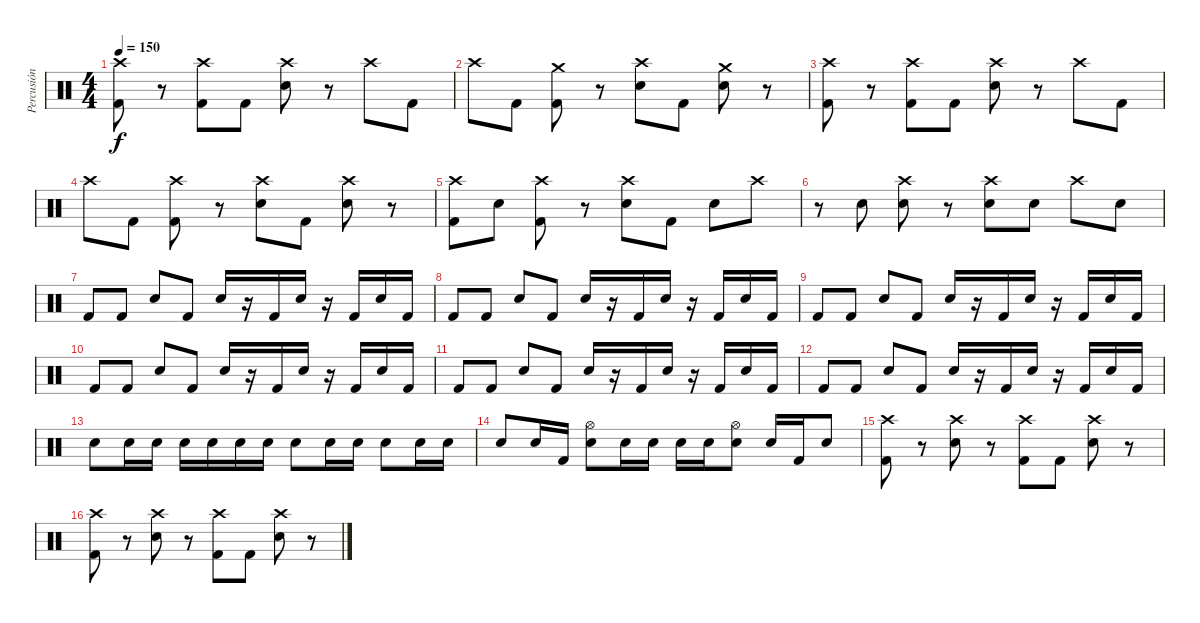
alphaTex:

\track ("Percusión" "Percusión") {instrument percussion}
\staff {score}
\articulation defaults
\ts (4 4)
\tempo 150
\clef neutral
\ks c
("Crash high (hit)" "Kick (hit) 2").8{dy f} r.8 ("Crash high (hit)" "Kick (hit) 2").8 "Kick (hit) 2".8 ("Crash high (hit)" "Snare (hit) 2").8 r.8 "Crash high (hit)".8 "Kick (hit) 2".8 |
"Crash high (hit)".8 "Kick (hit) 2".8 ("Crash medium (hit)" "Kick (hit) 2").8 r.8 ("Crash high (hit)" "Snare (hit) 2").8 "Kick (hit) 2".8 ("Crash medium (hit)" "Snare (hit) 2").8 r.8 |
("Crash high (hit)" "Kick (hit) 2").8 r.8 ("Crash high (hit)" "Kick (hit) 2").8 "Kick (hit) 2".8 ("Crash high (hit)" "Snare (hit) 2").8 r.8 "Crash high (hit)".8 "Kick (hit) 2".8 |
"Crash high (hit)".8 "Kick (hit) 2".8 ("Crash high (hit)" "Kick (hit) 2").8 r.8 ("Crash high (hit)" "Snare (hit) 2").8 "Kick (hit) 2".8 ("Crash high (hit)" "Snare (hit) 2").8 r.8 |
("Crash high (hit)" "Kick (hit) 2").8 "Snare (hit) 2".8 ("Crash high (hit)" "Kick (hit) 2").8 r.8 ("Crash high (hit)" "Snare (hit) 2").8 "Kick (hit) 2".8 "Snare (hit) 2".8 "Crash high (hit)".8 |
r.8 "Snare (hit) 2".8 ("Crash high (hit)" "Snare (hit) 2").8 r.8 ("Crash high (hit)" "Snare (hit) 2").8 "Snare (hit) 2".8 "Crash high (hit)".8 "Snare (hit) 2".8 |
"Kick (hit) 2".8{volume 10} "Kick (hit) 2".8 "Snare (hit) 2".8 "Kick (hit) 2".8 "Snare (hit) 2".16 r.16 "Kick (hit) 2".16 "Snare (hit) 2".16 r.16 "Kick (hit) 2".16 "Snare (hit) 2".16 "Kick (hit) 2".16 |
"Kick (hit) 2".8 "Kick (hit) 2".8 "Snare (hit) 2".8 "Kick (hit) 2".8 "Snare (hit) 2".16 r.16 "Kick (hit) 2".16 "Snare (hit) 2".16 r.16 "Kick (hit) 2".16 "Snare (hit) 2".16 "Kick (hit) 2".16 |
"Kick (hit) 2".8 "Kick (hit) 2".8 "Snare (hit) 2".8 "Kick (hit) 2".8 "Snare (hit) 2".16 r.16 "Kick (hit) 2".16 "Snare (hit) 2".16 r.16 "Kick (hit) 2".16 "Snare (hit) 2".16 "Kick (hit) 2".16 |
"Kick (hit) 2".8 "Kick (hit) 2".8 "Snare (hit) 2".8 "Kick (hit) 2".8 "Snare (hit) 2".16 r.16 "Kick (hit) 2".16 "Snare (hit) 2".16 r.16 "Kick (hit) 2".16 "Snare (hit) 2".16 "Kick (hit) 2".16 |
"Kick (hit) 2".8 "Kick (hit) 2".8 "Snare (hit) 2".8 "Kick (hit) 2".8 "Snare (hit) 2".16 r.16 "Kick (hit) 2".16 "Snare (hit) 2".16 r.16 "Kick (hit) 2".16 "Snare (hit) 2".16 "Kick (hit) 2".16 |
"Kick (hit) 2".8 "Kick (hit) 2".8 "Snare (hit) 2".8 "Kick (hit) 2".8 "Snare (hit) 2".16 r.16 "Kick (hit) 2".16 "Snare (hit) 2".16 r.16 "Kick (hit) 2".16 "Snare (hit) 2".16 "Kick (hit) 2".16 |
"Snare (hit) 2".8{volume 16} "Snare (hit) 2".16 "Snare (hit) 2".16 "Snare (hit) 2".16 "Snare (hit) 2".16 "Snare (hit) 2".16 "Snare (hit) 2".16 "Snare (hit) 2".8 "Snare (hit) 2".16 "Snare (hit) 2".16 "Snare (hit) 2".8 "Snare (hit) 2".16 "Snare (hit) 2".16 |
"Snare (hit) 2".8 "Snare (hit) 2".16 "Kick (hit) 2".16 ("Hi-Hat (open)" "Snare (hit) 2").8 "Snare (hit) 2".16 "Snare (hit) 2".16 "Snare (hit) 2".16 "Snare (hit) 2".16 ("Hi-Hat (open)" "Snare (hit) 2").8 "Snare (hit) 2".16 "Kick (hit) 2".16 "Snare (hit) 2".8 |
("Crash high (hit)" "Kick (hit) 2").8 r.8 ("Crash high (hit)" "Snare (hit) 2").8 r.8 ("Crash high (hit)" "Kick (hit) 2").8 "Kick (hit) 2".8 ("Crash high (hit)" "Snare (hit) 2").8 r.8 |
("Crash high (hit)" "Kick (hit) 2").8 r.8 ("Crash high (hit)" "Snare (hit) 2").8 r.8 ("Crash high (hit)" "Kick (hit) 2").8 "Kick (hit) 2".8 ("Crash high (hit)" "Snare (hit) 2").8 r.8
